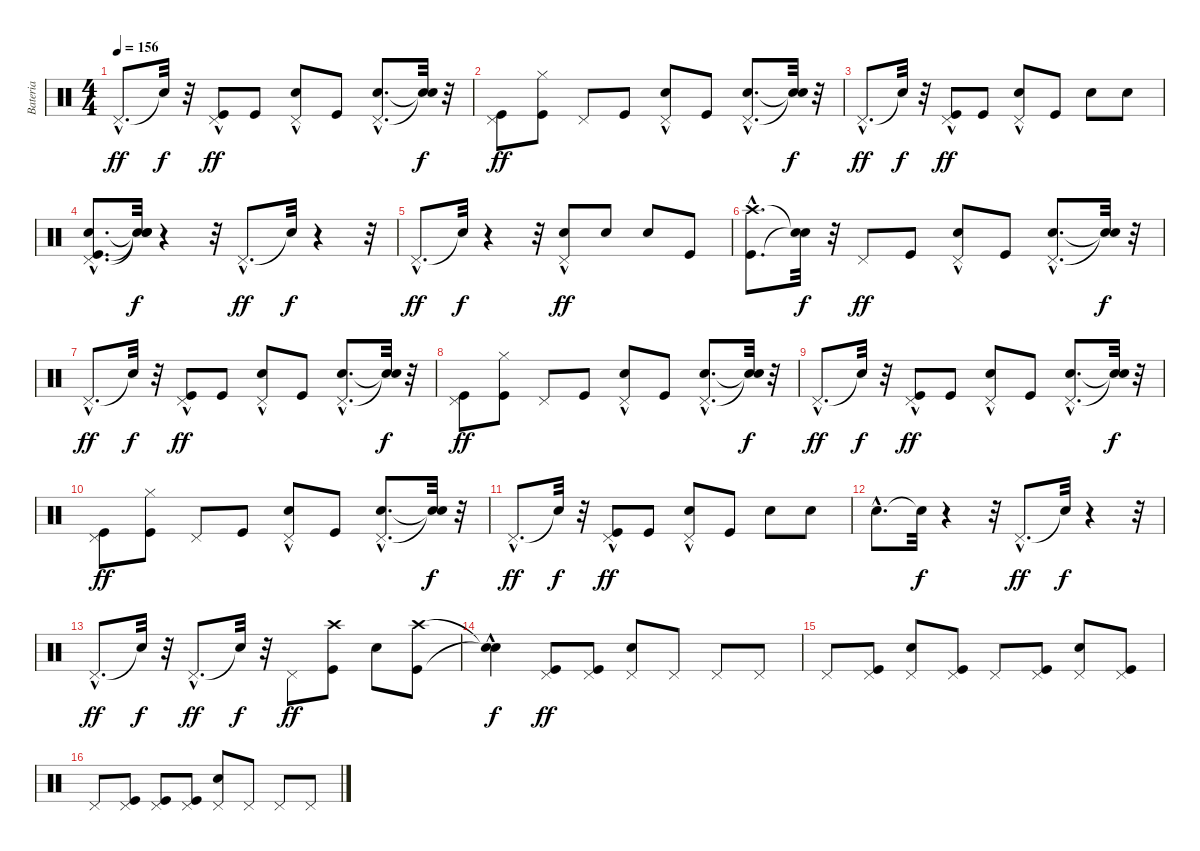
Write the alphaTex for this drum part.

\track ("Bateria" "Bateria") {instrument percussion}
\staff {score}
\articulation defaults
\ts (4 4)
\tempo 156
\clef neutral
\ks c "Pedal Hi-Hat (hit)"{hac}.8{d dy ff} "Snare (hit)"{t}.32{dy f}
r.32 ("Kick (hit)" "Pedal Hi-Hat (hit)"{hac}).8{dy ff} "Kick (hit)".8 ("Snare (hit) 2" "Pedal Hi-Hat (hit)"{hac}).8 "Kick (hit)".8 ("Snare (hit) 2"{hac} "Pedal Hi-Hat (hit)"{hac}).8{d} ("Snare (hit)"{t} "Snare (hit)"{t}).32{dy f} r.32 |
("Kick (hit)" "Pedal Hi-Hat (hit)").8{dy ff} ("Kick (hit)" "Hi-Hat (closed)").8 "Pedal Hi-Hat (hit)".8 "Kick (hit)".8 ("Snare (hit) 2" "Pedal Hi-Hat (hit)"{hac}).8 "Kick (hit)".8 ("Snare (hit) 2"{hac} "Pedal Hi-Hat (hit)"{hac}).8{d} ("Snare (hit)"{t} "Snare (hit)"{t}).32{dy f} r.32 |
"Pedal Hi-Hat (hit)"{hac}.8{d dy ff} "Snare (hit)"{t}.32{dy f} r.32 ("Kick (hit)" "Pedal Hi-Hat (hit)"{hac}).8{dy ff} "Kick (hit)".8 ("Snare (hit) 2" "Pedal Hi-Hat (hit)"{hac}).8 "Kick (hit)".8 "Snare (hit) 2".8 "Snare (hit) 2".8 |
("Kick (hit)"{hac} "Snare (hit) 2"{hac} "Pedal Hi-Hat (hit)"{hac}).8{d} ("Snare (hit)"{t} "Snare (hit)"{t} "Snare (hit)"{t}).32{dy f} r.4 r.32 "Pedal Hi-Hat (hit)"{hac}.8{d dy ff} "Snare (hit)"{t}.32{dy f} r.4 r.32 |
"Pedal Hi-Hat (hit)"{hac}.8{d dy ff} "Snare (hit)"{t}.32{dy f} r.4 r.32 ("Snare (hit) 2" "Pedal Hi-Hat (hit)"{hac}).8{dy ff} "Snare (hit) 2".8 "Snare (hit) 2".8 "Kick (hit)".8 |
("Kick (hit)"{hac} "Crash high (hit)"{hac}).8{d} ("Snare (hit)"{t} "Snare (hit)"{t}).32{dy f} r.32 "Pedal Hi-Hat (hit)".8{dy ff} "Kick (hit)".8 ("Snare (hit) 2" "Pedal Hi-Hat (hit)"{hac}).8 "Kick (hit)".8 ("Snare (hit) 2"{hac} "Pedal Hi-Hat (hit)"{hac}).8{d} ("Snare (hit)"{t} "Snare (hit)"{t}).32{dy f} r.32 |
"Pedal Hi-Hat (hit)"{hac}.8{d dy ff} "Snare (hit)"{t}.32{dy f} r.32 ("Kick (hit)" "Pedal Hi-Hat (hit)"{hac}).8{dy ff} "Kick (hit)".8 ("Snare (hit) 2" "Pedal Hi-Hat (hit)"{hac}).8 "Kick (hit)".8 ("Snare (hit) 2"{hac} "Pedal Hi-Hat (hit)"{hac}).8{d} ("Snare (hit)"{t} "Snare (hit)"{t}).32{dy f} r.32 |
("Kick (hit)" "Pedal Hi-Hat (hit)").8{dy ff} ("Kick (hit)" "Hi-Hat (closed)").8 "Pedal Hi-Hat (hit)".8 "Kick (hit)".8 ("Snare (hit) 2" "Pedal Hi-Hat (hit)"{hac}).8 "Kick (hit)".8 ("Snare (hit) 2"{hac} "Pedal Hi-Hat (hit)"{hac}).8{d} ("Snare (hit)"{t} "Snare (hit)"{t}).32{dy f} r.32 |
"Pedal Hi-Hat (hit)"{hac}.8{d dy ff} "Snare (hit)"{t}.32{dy f} r.32 ("Kick (hit)" "Pedal Hi-Hat (hit)"{hac}).8{dy ff} "Kick (hit)".8 ("Snare (hit) 2" "Pedal Hi-Hat (hit)"{hac}).8 "Kick (hit)".8 ("Snare (hit) 2"{hac} "Pedal Hi-Hat (hit)"{hac}).8{d} ("Snare (hit)"{t} "Snare (hit)"{t}).32{dy f} r.32 |
("Kick (hit)" "Pedal Hi-Hat (hit)").8{dy ff} ("Kick (hit)" "Hi-Hat (closed)").8 "Pedal Hi-Hat (hit)".8 "Kick (hit)".8 ("Snare (hit) 2" "Pedal Hi-Hat (hit)"{hac}).8 "Kick (hit)".8 ("Snare (hit) 2"{hac} "Pedal Hi-Hat (hit)"{hac}).8{d} ("Snare (hit)"{t} "Snare (hit)"{t}).32{dy f} r.32 |
"Pedal Hi-Hat (hit)"{hac}.8{d dy ff} "Snare (hit)"{t}.32{dy f} r.32 ("Kick (hit)" "Pedal Hi-Hat (hit)"{hac}).8{dy ff} "Kick (hit)".8 ("Snare (hit) 2" "Pedal Hi-Hat (hit)"{hac}).8 "Kick (hit)".8 "Snare (hit) 2".8 "Snare (hit) 2".8 |
"Snare (hit) 2"{hac}.8{d} "Snare (hit)"{t}.32{dy f} r.4 r.32 "Pedal Hi-Hat (hit)"{hac}.8{d dy ff} "Snare (hit)"{t}.32{dy f} r.4 r.32 |
"Pedal Hi-Hat (hit)"{hac}.8{d dy ff} "Snare (hit)"{t}.32{dy f} r.32 "Pedal Hi-Hat (hit)"{hac}.8{d dy ff} "Snare (hit)"{t}.32{dy f} r.32 "Pedal Hi-Hat (hit)".8{dy ff} ("Kick (hit)" "Crash high (hit)").8 "Snare (hit) 2".8 ("Kick (hit)" "Crash high (hit)").8 |
("Snare (hit)"{hac t} "Snare (hit)"{t}).4{dy f} ("Kick (hit)" "Pedal Hi-Hat (hit)").8{dy ff} ("Kick (hit)" "Pedal Hi-Hat (hit)").8 ("Snare (hit) 2" "Pedal Hi-Hat (hit)").8 "Pedal Hi-Hat (hit)".8 "Pedal Hi-Hat (hit)".8 "Pedal Hi-Hat (hit)".8 |
"Pedal Hi-Hat (hit)".8 ("Kick (hit)" "Pedal Hi-Hat (hit)").8 ("Snare (hit) 2" "Pedal Hi-Hat (hit)").8 ("Kick (hit)" "Pedal Hi-Hat (hit)").8 "Pedal Hi-Hat (hit)".8 ("Kick (hit)" "Pedal Hi-Hat (hit)").8 ("Snare (hit) 2" "Pedal Hi-Hat (hit)").8 ("Kick (hit)" "Pedal Hi-Hat (hit)").8 |
"Pedal Hi-Hat (hit)".8 ("Kick (hit)" "Pedal Hi-Hat (hit)").8 ("Kick (hit)" "Pedal Hi-Hat (hit)").8 ("Kick (hit)" "Pedal Hi-Hat (hit)").8 ("Snare (hit) 2" "Pedal Hi-Hat (hit)").8 "Pedal Hi-Hat (hit)".8 "Pedal Hi-Hat (hit)".8 "Pedal Hi-Hat (hit)".8
